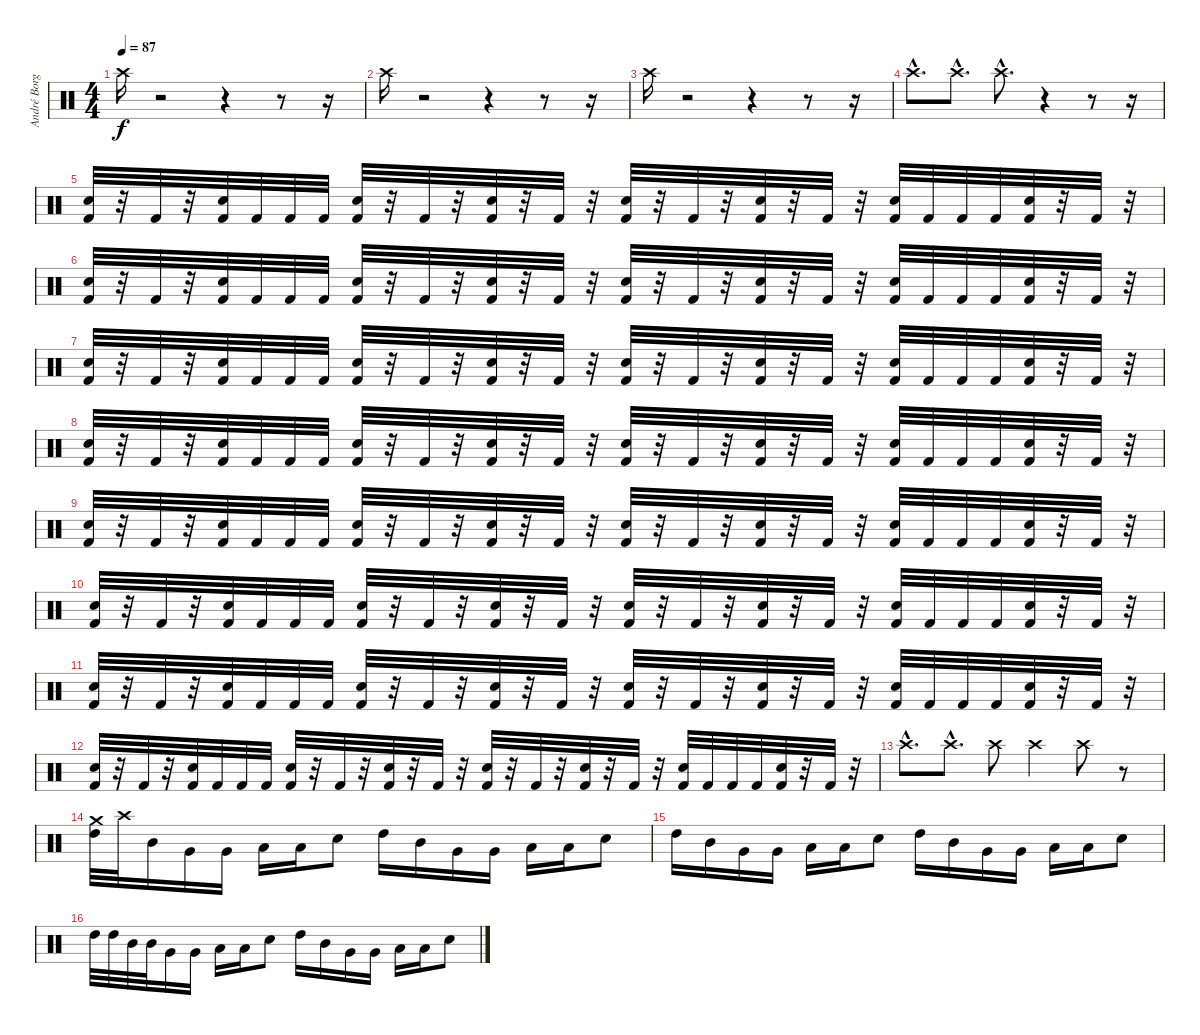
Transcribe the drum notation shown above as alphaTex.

\track ("André Borgman" "André Borg") {instrument percussion}
\staff {score}
\articulation defaults
\ts (4 4)
\tempo 87
\clef neutral
\ks c "Crash high (hit)".16{dy f}
r.2 r.4 r.8 r.16 |
"Crash high (hit)".16 r.2 r.4 r.8 r.16 |
"Crash high (hit)".16 r.2 r.4 r.8 r.16 |
"Crash high (hit)"{hac}.8{d} "Crash high (hit)"{hac}.8{d} "Crash high (hit)"{hac}.8{d} r.4 r.8 r.16 |
("Electric Snare (hit)" "Kick (hit) 2").32 r.32 "Kick (hit) 2".32 r.32 ("Electric Snare (hit)" "Kick (hit) 2").32 "Kick (hit) 2".32 "Kick (hit) 2".32 "Kick (hit) 2".32 ("Electric Snare (hit)" "Kick (hit) 2").32 r.32 "Kick (hit) 2".32 r.32 ("Electric Snare (hit)" "Kick (hit) 2").32 r.32 "Kick (hit) 2".32 r.32 ("Electric Snare (hit)" "Kick (hit) 2").32 r.32 "Kick (hit) 2".32 r.32 ("Electric Snare (hit)" "Kick (hit) 2").32 r.32 "Kick (hit) 2".32 r.32 ("Electric Snare (hit)" "Kick (hit) 2").32 "Kick (hit) 2".32 "Kick (hit) 2".32 "Kick (hit) 2".32 ("Electric Snare (hit)" "Kick (hit) 2").32 r.32 "Kick (hit) 2".32 r.32 |
("Electric Snare (hit)" "Kick (hit) 2").32 r.32 "Kick (hit) 2".32 r.32 ("Electric Snare (hit)" "Kick (hit) 2").32 "Kick (hit) 2".32 "Kick (hit) 2".32 "Kick (hit) 2".32 ("Electric Snare (hit)" "Kick (hit) 2").32 r.32 "Kick (hit) 2".32 r.32 ("Electric Snare (hit)" "Kick (hit) 2").32 r.32 "Kick (hit) 2".32 r.32 ("Electric Snare (hit)" "Kick (hit) 2").32 r.32 "Kick (hit) 2".32 r.32 ("Electric Snare (hit)" "Kick (hit) 2").32 r.32 "Kick (hit) 2".32 r.32 ("Electric Snare (hit)" "Kick (hit) 2").32 "Kick (hit) 2".32 "Kick (hit) 2".32 "Kick (hit) 2".32 ("Electric Snare (hit)" "Kick (hit) 2").32 r.32 "Kick (hit) 2".32 r.32 |
("Electric Snare (hit)" "Kick (hit) 2").32 r.32 "Kick (hit) 2".32 r.32 ("Electric Snare (hit)" "Kick (hit) 2").32 "Kick (hit) 2".32 "Kick (hit) 2".32 "Kick (hit) 2".32 ("Electric Snare (hit)" "Kick (hit) 2").32 r.32 "Kick (hit) 2".32 r.32 ("Electric Snare (hit)" "Kick (hit) 2").32 r.32 "Kick (hit) 2".32 r.32 ("Electric Snare (hit)" "Kick (hit) 2").32 r.32 "Kick (hit) 2".32 r.32 ("Electric Snare (hit)" "Kick (hit) 2").32 r.32 "Kick (hit) 2".32 r.32 ("Electric Snare (hit)" "Kick (hit) 2").32 "Kick (hit) 2".32 "Kick (hit) 2".32 "Kick (hit) 2".32 ("Electric Snare (hit)" "Kick (hit) 2").32 r.32 "Kick (hit) 2".32 r.32 |
("Electric Snare (hit)" "Kick (hit) 2").32 r.32 "Kick (hit) 2".32 r.32 ("Electric Snare (hit)" "Kick (hit) 2").32 "Kick (hit) 2".32 "Kick (hit) 2".32 "Kick (hit) 2".32 ("Electric Snare (hit)" "Kick (hit) 2").32 r.32 "Kick (hit) 2".32 r.32 ("Electric Snare (hit)" "Kick (hit) 2").32 r.32 "Kick (hit) 2".32 r.32 ("Electric Snare (hit)" "Kick (hit) 2").32 r.32 "Kick (hit) 2".32 r.32 ("Electric Snare (hit)" "Kick (hit) 2").32 r.32 "Kick (hit) 2".32 r.32 ("Electric Snare (hit)" "Kick (hit) 2").32 "Kick (hit) 2".32 "Kick (hit) 2".32 "Kick (hit) 2".32 ("Electric Snare (hit)" "Kick (hit) 2").32 r.32 "Kick (hit) 2".32 r.32 |
("Electric Snare (hit)" "Kick (hit) 2").32 r.32 "Kick (hit) 2".32 r.32 ("Electric Snare (hit)" "Kick (hit) 2").32 "Kick (hit) 2".32 "Kick (hit) 2".32 "Kick (hit) 2".32 ("Electric Snare (hit)" "Kick (hit) 2").32 r.32 "Kick (hit) 2".32 r.32 ("Electric Snare (hit)" "Kick (hit) 2").32 r.32 "Kick (hit) 2".32 r.32 ("Electric Snare (hit)" "Kick (hit) 2").32 r.32 "Kick (hit) 2".32 r.32 ("Electric Snare (hit)" "Kick (hit) 2").32 r.32 "Kick (hit) 2".32 r.32 ("Electric Snare (hit)" "Kick (hit) 2").32 "Kick (hit) 2".32 "Kick (hit) 2".32 "Kick (hit) 2".32 ("Electric Snare (hit)" "Kick (hit) 2").32 r.32 "Kick (hit) 2".32 r.32 |
("Electric Snare (hit)" "Kick (hit) 2").32 r.32 "Kick (hit) 2".32 r.32 ("Electric Snare (hit)" "Kick (hit) 2").32 "Kick (hit) 2".32 "Kick (hit) 2".32 "Kick (hit) 2".32 ("Electric Snare (hit)" "Kick (hit) 2").32 r.32 "Kick (hit) 2".32 r.32 ("Electric Snare (hit)" "Kick (hit) 2").32 r.32 "Kick (hit) 2".32 r.32 ("Electric Snare (hit)" "Kick (hit) 2").32 r.32 "Kick (hit) 2".32 r.32 ("Electric Snare (hit)" "Kick (hit) 2").32 r.32 "Kick (hit) 2".32 r.32 ("Electric Snare (hit)" "Kick (hit) 2").32 "Kick (hit) 2".32 "Kick (hit) 2".32 "Kick (hit) 2".32 ("Electric Snare (hit)" "Kick (hit) 2").32 r.32 "Kick (hit) 2".32 r.32 |
("Electric Snare (hit)" "Kick (hit) 2").32 r.32 "Kick (hit) 2".32 r.32 ("Electric Snare (hit)" "Kick (hit) 2").32 "Kick (hit) 2".32 "Kick (hit) 2".32 "Kick (hit) 2".32 ("Electric Snare (hit)" "Kick (hit) 2").32 r.32 "Kick (hit) 2".32 r.32 ("Electric Snare (hit)" "Kick (hit) 2").32 r.32 "Kick (hit) 2".32 r.32 ("Electric Snare (hit)" "Kick (hit) 2").32 r.32 "Kick (hit) 2".32 r.32 ("Electric Snare (hit)" "Kick (hit) 2").32 r.32 "Kick (hit) 2".32 r.32 ("Electric Snare (hit)" "Kick (hit) 2").32 "Kick (hit) 2".32 "Kick (hit) 2".32 "Kick (hit) 2".32 ("Electric Snare (hit)" "Kick (hit) 2").32 r.32 "Kick (hit) 2".32 r.32 |
("Electric Snare (hit)" "Kick (hit) 2").32 r.32 "Kick (hit) 2".32 r.32 ("Electric Snare (hit)" "Kick (hit) 2").32 "Kick (hit) 2".32 "Kick (hit) 2".32 "Kick (hit) 2".32 ("Electric Snare (hit)" "Kick (hit) 2").32 r.32 "Kick (hit) 2".32 r.32 ("Electric Snare (hit)" "Kick (hit) 2").32 r.32 "Kick (hit) 2".32 r.32 ("Electric Snare (hit)" "Kick (hit) 2").32 r.32 "Kick (hit) 2".32 r.32 ("Electric Snare (hit)" "Kick (hit) 2").32 r.32 "Kick (hit) 2".32 r.32 ("Electric Snare (hit)" "Kick (hit) 2").32 "Kick (hit) 2".32 "Kick (hit) 2".32 "Kick (hit) 2".32 ("Electric Snare (hit)" "Kick (hit) 2").32 r.32 "Kick (hit) 2".32 r.32 |
"Crash high (hit)"{hac}.8{d} "Crash high (hit)"{hac}.8{d} "Crash high (hit)".8 "Crash high (hit)".4 "Crash high (hit)".8 r.8 |
("Crash medium (hit)" "High Tom (hit)").32 "Crash high (hit)".32 "Mid Tom (hit)".16 "Very Low Tom (hit)".16 "Very Low Tom (hit)".16 "Low Floor Tom (hit)".16 "Low Floor Tom (hit)".16 "Electric Snare (hit)".8 "High Tom (hit)".16 "Mid Tom (hit)".16 "Very Low Tom (hit)".16 "Very Low Tom (hit)".16 "Low Floor Tom (hit)".16 "Low Floor Tom (hit)".16 "Electric Snare (hit)".8 |
"High Tom (hit)".16 "Mid Tom (hit)".16 "Very Low Tom (hit)".16 "Very Low Tom (hit)".16 "Low Floor Tom (hit)".16 "Low Floor Tom (hit)".16 "Electric Snare (hit)".8 "High Tom (hit)".16 "Mid Tom (hit)".16 "Very Low Tom (hit)".16 "Very Low Tom (hit)".16 "Low Floor Tom (hit)".16 "Low Floor Tom (hit)".16 "Electric Snare (hit)".8 |
"High Tom (hit)".32 "High Tom (hit)".32 "Mid Tom (hit)".32 "Mid Tom (hit)".32 "Very Low Tom (hit)".16 "Very Low Tom (hit)".16 "Low Floor Tom (hit)".16 "Low Floor Tom (hit)".16 "Electric Snare (hit)".8 "High Tom (hit)".16 "Mid Tom (hit)".16 "Very Low Tom (hit)".16 "Very Low Tom (hit)".16 "Low Floor Tom (hit)".16 "Low Floor Tom (hit)".16 "Electric Snare (hit)".8
